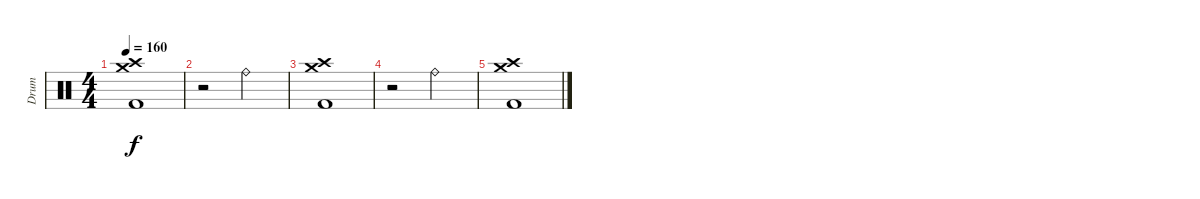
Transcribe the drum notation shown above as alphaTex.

\track ("Drum" "Drum") {instrument percussion}
\staff {score}
\articulation defaults
\ts (4 4)
\tempo 160
\clef neutral
\ks c
("Crash high (hit)" "Crash medium (hit)" "Kick (hit) 2").1{dy f} |
r.2 "Ride (bell)".2 |
("Crash high (hit)" "Crash medium (hit)" "Kick (hit) 2").1 |
r.2 "Ride (bell)".2 |
("Crash high (hit)" "Crash medium (hit)" "Kick (hit) 2").1
